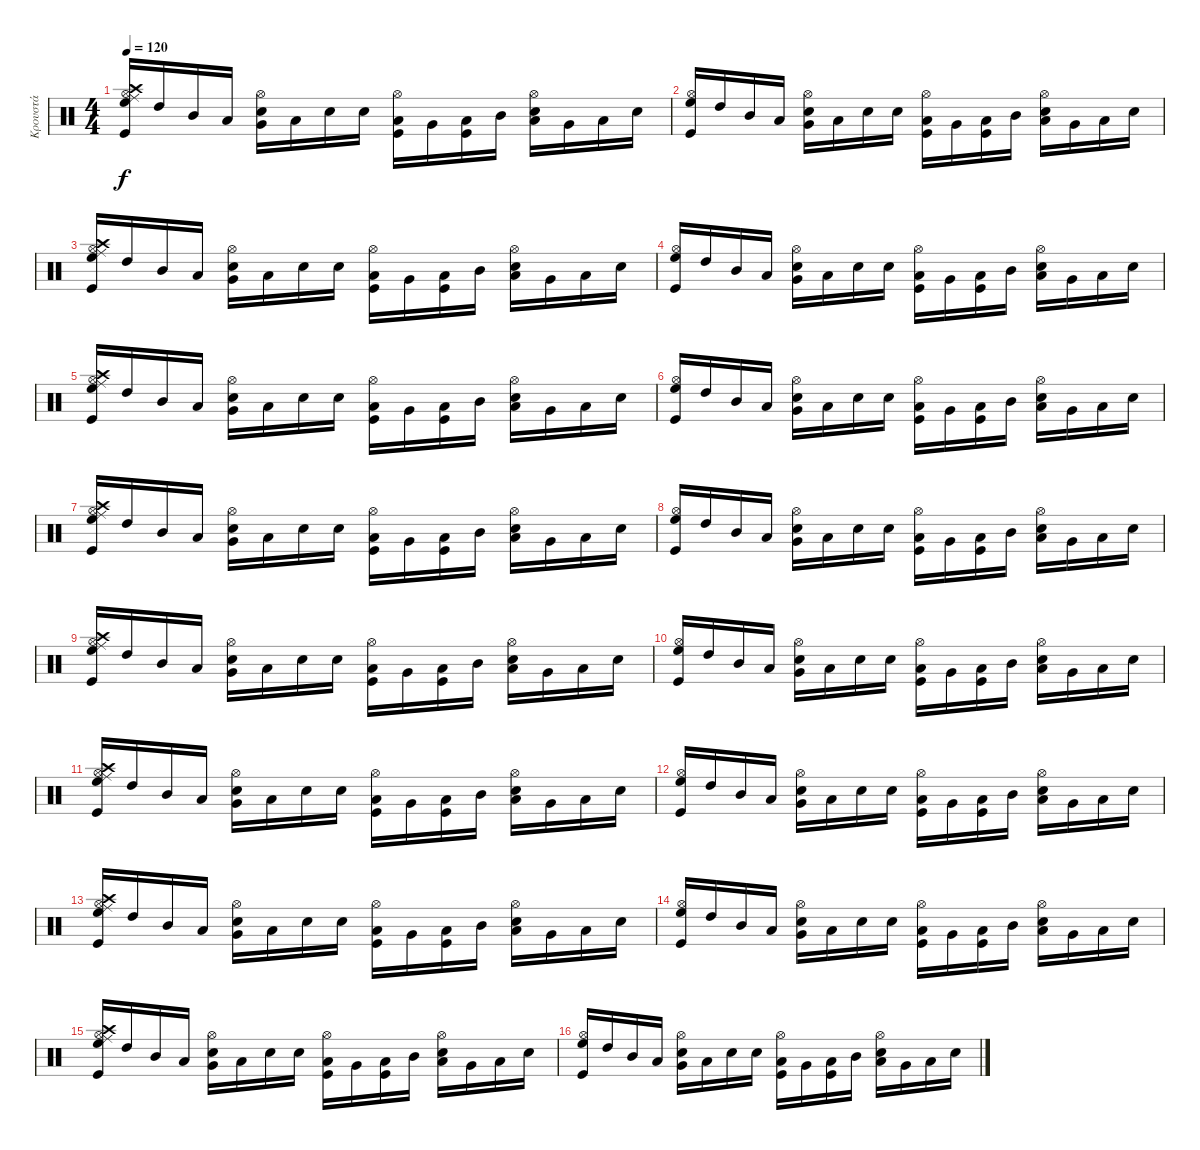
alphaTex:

\track ("Κρουστά" "Κρουστά") {instrument percussion}
\staff {score}
\articulation defaults
\ts (4 4)
\tempo 120
\clef neutral
\ks c
("High Floor Tom (hit)" "Ride (middle)" "Crash high (hit)" "Hi-Hat (open)" "Kick (hit)").16{dy f} "High Tom (hit)".16 "Mid Tom (hit)".16 "Low Tom (hit)".16 ("Very Low Tom (hit)" "Snare (hit) 2" "Hi-Hat (open)").16 "Low Floor Tom (hit)".16 "Snare (hit) 2".16 "Snare (hit) 2".16 ("Low Floor Tom (hit)" "Hi-Hat (open)" "Kick (hit)").16 "Very Low Tom (hit)".16 ("Low Tom (hit)" "Kick (hit)").16 "Mid Tom (hit)".16 ("Low Tom (hit)" "Snare (hit) 2" "Hi-Hat (open)").16 "Very Low Tom (hit)".16 "Low Floor Tom (hit)".16 "Snare (hit) 2".16 |
("High Floor Tom (hit)" "Hi-Hat (open)" "Kick (hit)").16 "High Tom (hit)".16 "Mid Tom (hit)".16 "Low Tom (hit)".16 ("Very Low Tom (hit)" "Snare (hit) 2" "Hi-Hat (open)").16 "Low Floor Tom (hit)".16 "Snare (hit) 2".16 "Snare (hit) 2".16 ("Low Floor Tom (hit)" "Hi-Hat (open)" "Kick (hit)").16 "Very Low Tom (hit)".16 ("Low Tom (hit)" "Kick (hit)").16 "Mid Tom (hit)".16 ("Low Tom (hit)" "Snare (hit) 2" "Hi-Hat (open)").16 "Very Low Tom (hit)".16 "Low Floor Tom (hit)".16 "Snare (hit) 2".16 |
("High Floor Tom (hit)" "Ride (middle)" "Crash high (hit)" "Hi-Hat (open)" "Kick (hit)").16 "High Tom (hit)".16 "Mid Tom (hit)".16 "Low Tom (hit)".16 ("Very Low Tom (hit)" "Snare (hit) 2" "Hi-Hat (open)").16 "Low Floor Tom (hit)".16 "Snare (hit) 2".16 "Snare (hit) 2".16 ("Low Floor Tom (hit)" "Hi-Hat (open)" "Kick (hit)").16 "Very Low Tom (hit)".16 ("Low Tom (hit)" "Kick (hit)").16 "Mid Tom (hit)".16 ("Low Tom (hit)" "Snare (hit) 2" "Hi-Hat (open)").16 "Very Low Tom (hit)".16 "Low Floor Tom (hit)".16 "Snare (hit) 2".16 |
("High Floor Tom (hit)" "Hi-Hat (open)" "Kick (hit)").16 "High Tom (hit)".16 "Mid Tom (hit)".16 "Low Tom (hit)".16 ("Very Low Tom (hit)" "Snare (hit) 2" "Hi-Hat (open)").16 "Low Floor Tom (hit)".16 "Snare (hit) 2".16 "Snare (hit) 2".16 ("Low Floor Tom (hit)" "Hi-Hat (open)" "Kick (hit)").16 "Very Low Tom (hit)".16 ("Low Tom (hit)" "Kick (hit)").16 "Mid Tom (hit)".16 ("Low Tom (hit)" "Snare (hit) 2" "Hi-Hat (open)").16 "Very Low Tom (hit)".16 "Low Floor Tom (hit)".16 "Snare (hit) 2".16 |
("High Floor Tom (hit)" "Ride (middle)" "Crash high (hit)" "Hi-Hat (open)" "Kick (hit)").16 "High Tom (hit)".16 "Mid Tom (hit)".16 "Low Tom (hit)".16 ("Very Low Tom (hit)" "Snare (hit) 2" "Hi-Hat (open)").16 "Low Floor Tom (hit)".16 "Snare (hit) 2".16 "Snare (hit) 2".16 ("Low Floor Tom (hit)" "Hi-Hat (open)" "Kick (hit)").16 "Very Low Tom (hit)".16 ("Low Tom (hit)" "Kick (hit)").16 "Mid Tom (hit)".16 ("Low Tom (hit)" "Snare (hit) 2" "Hi-Hat (open)").16 "Very Low Tom (hit)".16 "Low Floor Tom (hit)".16 "Snare (hit) 2".16 |
("High Floor Tom (hit)" "Hi-Hat (open)" "Kick (hit)").16 "High Tom (hit)".16 "Mid Tom (hit)".16 "Low Tom (hit)".16 ("Very Low Tom (hit)" "Snare (hit) 2" "Hi-Hat (open)").16 "Low Floor Tom (hit)".16 "Snare (hit) 2".16 "Snare (hit) 2".16 ("Low Floor Tom (hit)" "Hi-Hat (open)" "Kick (hit)").16 "Very Low Tom (hit)".16 ("Low Tom (hit)" "Kick (hit)").16 "Mid Tom (hit)".16 ("Low Tom (hit)" "Snare (hit) 2" "Hi-Hat (open)").16 "Very Low Tom (hit)".16 "Low Floor Tom (hit)".16 "Snare (hit) 2".16 |
("High Floor Tom (hit)" "Ride (middle)" "Crash high (hit)" "Hi-Hat (open)" "Kick (hit)").16 "High Tom (hit)".16 "Mid Tom (hit)".16 "Low Tom (hit)".16 ("Very Low Tom (hit)" "Snare (hit) 2" "Hi-Hat (open)").16 "Low Floor Tom (hit)".16 "Snare (hit) 2".16 "Snare (hit) 2".16 ("Low Floor Tom (hit)" "Hi-Hat (open)" "Kick (hit)").16 "Very Low Tom (hit)".16 ("Low Tom (hit)" "Kick (hit)").16 "Mid Tom (hit)".16 ("Low Tom (hit)" "Snare (hit) 2" "Hi-Hat (open)").16 "Very Low Tom (hit)".16 "Low Floor Tom (hit)".16 "Snare (hit) 2".16 |
("High Floor Tom (hit)" "Hi-Hat (open)" "Kick (hit)").16 "High Tom (hit)".16 "Mid Tom (hit)".16 "Low Tom (hit)".16 ("Very Low Tom (hit)" "Snare (hit) 2" "Hi-Hat (open)").16 "Low Floor Tom (hit)".16 "Snare (hit) 2".16 "Snare (hit) 2".16 ("Low Floor Tom (hit)" "Hi-Hat (open)" "Kick (hit)").16 "Very Low Tom (hit)".16 ("Low Tom (hit)" "Kick (hit)").16 "Mid Tom (hit)".16 ("Low Tom (hit)" "Snare (hit) 2" "Hi-Hat (open)").16 "Very Low Tom (hit)".16 "Low Floor Tom (hit)".16 "Snare (hit) 2".16 |
("High Floor Tom (hit)" "Ride (middle)" "Crash high (hit)" "Hi-Hat (open)" "Kick (hit)").16 "High Tom (hit)".16 "Mid Tom (hit)".16 "Low Tom (hit)".16 ("Very Low Tom (hit)" "Snare (hit) 2" "Hi-Hat (open)").16 "Low Floor Tom (hit)".16 "Snare (hit) 2".16 "Snare (hit) 2".16 ("Low Floor Tom (hit)" "Hi-Hat (open)" "Kick (hit)").16 "Very Low Tom (hit)".16 ("Low Tom (hit)" "Kick (hit)").16 "Mid Tom (hit)".16 ("Low Tom (hit)" "Snare (hit) 2" "Hi-Hat (open)").16 "Very Low Tom (hit)".16 "Low Floor Tom (hit)".16 "Snare (hit) 2".16 |
("High Floor Tom (hit)" "Hi-Hat (open)" "Kick (hit)").16 "High Tom (hit)".16 "Mid Tom (hit)".16 "Low Tom (hit)".16 ("Very Low Tom (hit)" "Snare (hit) 2" "Hi-Hat (open)").16 "Low Floor Tom (hit)".16 "Snare (hit) 2".16 "Snare (hit) 2".16 ("Low Floor Tom (hit)" "Hi-Hat (open)" "Kick (hit)").16 "Very Low Tom (hit)".16 ("Low Tom (hit)" "Kick (hit)").16 "Mid Tom (hit)".16 ("Low Tom (hit)" "Snare (hit) 2" "Hi-Hat (open)").16 "Very Low Tom (hit)".16 "Low Floor Tom (hit)".16 "Snare (hit) 2".16 |
("High Floor Tom (hit)" "Ride (middle)" "Crash high (hit)" "Hi-Hat (open)" "Kick (hit)").16 "High Tom (hit)".16 "Mid Tom (hit)".16 "Low Tom (hit)".16 ("Very Low Tom (hit)" "Snare (hit) 2" "Hi-Hat (open)").16 "Low Floor Tom (hit)".16 "Snare (hit) 2".16 "Snare (hit) 2".16 ("Low Floor Tom (hit)" "Hi-Hat (open)" "Kick (hit)").16 "Very Low Tom (hit)".16 ("Low Tom (hit)" "Kick (hit)").16 "Mid Tom (hit)".16 ("Low Tom (hit)" "Snare (hit) 2" "Hi-Hat (open)").16 "Very Low Tom (hit)".16 "Low Floor Tom (hit)".16 "Snare (hit) 2".16 |
("High Floor Tom (hit)" "Hi-Hat (open)" "Kick (hit)").16 "High Tom (hit)".16 "Mid Tom (hit)".16 "Low Tom (hit)".16 ("Very Low Tom (hit)" "Snare (hit) 2" "Hi-Hat (open)").16 "Low Floor Tom (hit)".16 "Snare (hit) 2".16 "Snare (hit) 2".16 ("Low Floor Tom (hit)" "Hi-Hat (open)" "Kick (hit)").16 "Very Low Tom (hit)".16 ("Low Tom (hit)" "Kick (hit)").16 "Mid Tom (hit)".16 ("Low Tom (hit)" "Snare (hit) 2" "Hi-Hat (open)").16 "Very Low Tom (hit)".16 "Low Floor Tom (hit)".16 "Snare (hit) 2".16 |
("High Floor Tom (hit)" "Ride (middle)" "Crash high (hit)" "Hi-Hat (open)" "Kick (hit)").16 "High Tom (hit)".16 "Mid Tom (hit)".16 "Low Tom (hit)".16 ("Very Low Tom (hit)" "Snare (hit) 2" "Hi-Hat (open)").16 "Low Floor Tom (hit)".16 "Snare (hit) 2".16 "Snare (hit) 2".16 ("Low Floor Tom (hit)" "Hi-Hat (open)" "Kick (hit)").16 "Very Low Tom (hit)".16 ("Low Tom (hit)" "Kick (hit)").16 "Mid Tom (hit)".16 ("Low Tom (hit)" "Snare (hit) 2" "Hi-Hat (open)").16 "Very Low Tom (hit)".16 "Low Floor Tom (hit)".16 "Snare (hit) 2".16 |
("High Floor Tom (hit)" "Hi-Hat (open)" "Kick (hit)").16 "High Tom (hit)".16 "Mid Tom (hit)".16 "Low Tom (hit)".16 ("Very Low Tom (hit)" "Snare (hit) 2" "Hi-Hat (open)").16 "Low Floor Tom (hit)".16 "Snare (hit) 2".16 "Snare (hit) 2".16 ("Low Floor Tom (hit)" "Hi-Hat (open)" "Kick (hit)").16 "Very Low Tom (hit)".16 ("Low Tom (hit)" "Kick (hit)").16 "Mid Tom (hit)".16 ("Low Tom (hit)" "Snare (hit) 2" "Hi-Hat (open)").16 "Very Low Tom (hit)".16 "Low Floor Tom (hit)".16 "Snare (hit) 2".16 |
("High Floor Tom (hit)" "Ride (middle)" "Crash high (hit)" "Hi-Hat (open)" "Kick (hit)").16 "High Tom (hit)".16 "Mid Tom (hit)".16 "Low Tom (hit)".16 ("Very Low Tom (hit)" "Snare (hit) 2" "Hi-Hat (open)").16 "Low Floor Tom (hit)".16 "Snare (hit) 2".16 "Snare (hit) 2".16 ("Low Floor Tom (hit)" "Hi-Hat (open)" "Kick (hit)").16 "Very Low Tom (hit)".16 ("Low Tom (hit)" "Kick (hit)").16 "Mid Tom (hit)".16 ("Low Tom (hit)" "Snare (hit) 2" "Hi-Hat (open)").16 "Very Low Tom (hit)".16 "Low Floor Tom (hit)".16 "Snare (hit) 2".16 |
("High Floor Tom (hit)" "Hi-Hat (open)" "Kick (hit)").16 "High Tom (hit)".16 "Mid Tom (hit)".16 "Low Tom (hit)".16 ("Very Low Tom (hit)" "Snare (hit) 2" "Hi-Hat (open)").16 "Low Floor Tom (hit)".16 "Snare (hit) 2".16 "Snare (hit) 2".16 ("Low Floor Tom (hit)" "Hi-Hat (open)" "Kick (hit)").16 "Very Low Tom (hit)".16 ("Low Tom (hit)" "Kick (hit)").16 "Mid Tom (hit)".16 ("Low Tom (hit)" "Snare (hit) 2" "Hi-Hat (open)").16 "Very Low Tom (hit)".16 "Low Floor Tom (hit)".16 "Snare (hit) 2".16
